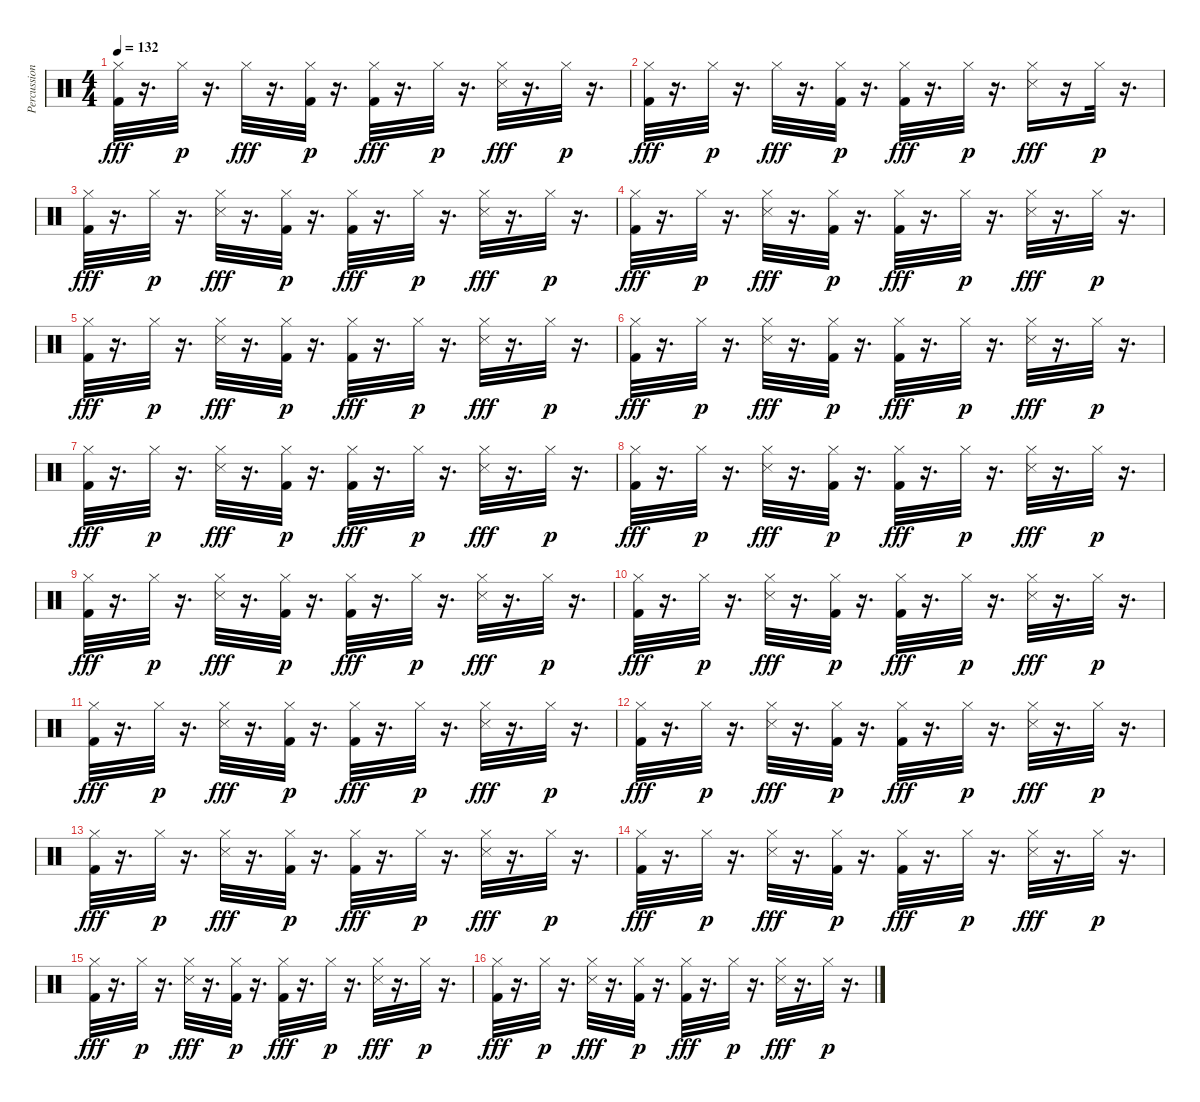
\track ("Percussion" "Percussion") {instrument percussion}
\staff {score}
\articulation defaults
\ts (4 4)
\tempo 132
\clef neutral
\ks c
("Kick (hit) 2" "Hi-Hat (closed)").32{dy fff} r.16{d} "Hi-Hat (closed)".32{dy p} r.16{d} "Hi-Hat (closed)".32{dy fff} r.16{d} ("Kick (hit) 2" "Hi-Hat (closed)").32{dy p} r.16{d} ("Kick (hit) 2" "Hi-Hat (closed)").32{dy fff} r.16{d} "Hi-Hat (closed)".32{dy p} r.16{d} ("Snare (side stick) 3" "Hi-Hat (closed)").32{dy fff} r.16{d} "Hi-Hat (closed)".32{dy p} r.16{d} |
("Kick (hit) 2" "Hi-Hat (closed)").32{dy fff} r.16{d} "Hi-Hat (closed)".32{dy p} r.16{d} "Hi-Hat (closed)".32{dy fff} r.16{d} ("Kick (hit) 2" "Hi-Hat (closed)").32{dy p} r.16{d} ("Kick (hit) 2" "Hi-Hat (closed)").32{dy fff} r.16{d} "Hi-Hat (closed)".32{dy p} r.16{d} ("Snare (side stick) 3" "Hi-Hat (closed)").16{dy fff} r.16 "Hi-Hat (closed)".32{dy p} r.16{d} |
("Kick (hit) 2" "Hi-Hat (closed)").32{dy fff} r.16{d} "Hi-Hat (closed)".32{dy p} r.16{d} ("Hi-Hat (closed)" "Snare (side stick) 3").32{dy fff} r.16{d} ("Kick (hit) 2" "Hi-Hat (closed)").32{dy p} r.16{d} ("Kick (hit) 2" "Hi-Hat (closed)").32{dy fff} r.16{d} "Hi-Hat (closed)".32{dy p} r.16{d} ("Snare (side stick) 3" "Hi-Hat (closed)").32{dy fff} r.16{d} "Hi-Hat (closed)".32{dy p} r.16{d} |
("Kick (hit) 2" "Hi-Hat (closed)").32{dy fff} r.16{d} "Hi-Hat (closed)".32{dy p} r.16{d} ("Hi-Hat (closed)" "Snare (side stick) 3").32{dy fff} r.16{d} ("Kick (hit) 2" "Hi-Hat (closed)").32{dy p} r.16{d} ("Kick (hit) 2" "Hi-Hat (closed)").32{dy fff} r.16{d} "Hi-Hat (closed)".32{dy p} r.16{d} ("Snare (side stick) 3" "Hi-Hat (closed)").32{dy fff} r.16{d} "Hi-Hat (closed)".32{dy p} r.16{d} |
("Kick (hit) 2" "Hi-Hat (closed)").32{dy fff} r.16{d} "Hi-Hat (closed)".32{dy p} r.16{d} ("Snare (side stick) 3" "Hi-Hat (closed)").32{dy fff} r.16{d} ("Kick (hit) 2" "Hi-Hat (closed)").32{dy p} r.16{d} ("Kick (hit) 2" "Hi-Hat (closed)").32{dy fff} r.16{d} "Hi-Hat (closed)".32{dy p} r.16{d} ("Snare (side stick) 3" "Hi-Hat (closed)").32{dy fff} r.16{d} "Hi-Hat (closed)".32{dy p} r.16{d} |
("Kick (hit) 2" "Hi-Hat (closed)").32{dy fff} r.16{d} "Hi-Hat (closed)".32{dy p} r.16{d} ("Snare (side stick) 3" "Hi-Hat (closed)").32{dy fff} r.16{d} ("Kick (hit) 2" "Hi-Hat (closed)").32{dy p} r.16{d} ("Kick (hit) 2" "Hi-Hat (closed)").32{dy fff} r.16{d} "Hi-Hat (closed)".32{dy p} r.16{d} ("Hi-Hat (closed)" "Snare (side stick) 3").32{dy fff} r.16{d} "Hi-Hat (closed)".32{dy p} r.16{d} |
("Kick (hit) 2" "Hi-Hat (closed)").32{dy fff} r.16{d} "Hi-Hat (closed)".32{dy p} r.16{d} ("Snare (side stick) 3" "Hi-Hat (closed)").32{dy fff} r.16{d} ("Kick (hit) 2" "Hi-Hat (closed)").32{dy p} r.16{d} ("Kick (hit) 2" "Hi-Hat (closed)").32{dy fff} r.16{d} "Hi-Hat (closed)".32{dy p} r.16{d} ("Hi-Hat (closed)" "Snare (side stick) 3").32{dy fff} r.16{d} "Hi-Hat (closed)".32{dy p} r.16{d} |
("Kick (hit) 2" "Hi-Hat (closed)").32{dy fff} r.16{d} "Hi-Hat (closed)".32{dy p} r.16{d} ("Snare (side stick) 3" "Hi-Hat (closed)").32{dy fff} r.16{d} ("Kick (hit) 2" "Hi-Hat (closed)").32{dy p} r.16{d} ("Kick (hit) 2" "Hi-Hat (closed)").32{dy fff} r.16{d} "Hi-Hat (closed)".32{dy p} r.16{d} ("Hi-Hat (closed)" "Snare (side stick) 3").32{dy fff} r.16{d} "Hi-Hat (closed)".32{dy p} r.16{d} |
("Kick (hit) 2" "Hi-Hat (closed)").32{dy fff} r.16{d} "Hi-Hat (closed)".32{dy p} r.16{d} ("Snare (side stick) 3" "Hi-Hat (closed)").32{dy fff} r.16{d} ("Kick (hit) 2" "Hi-Hat (closed)").32{dy p} r.16{d} ("Kick (hit) 2" "Hi-Hat (closed)").32{dy fff} r.16{d} "Hi-Hat (closed)".32{dy p} r.16{d} ("Snare (side stick) 3" "Hi-Hat (closed)").32{dy fff} r.16{d} "Hi-Hat (closed)".32{dy p} r.16{d} |
("Kick (hit) 2" "Hi-Hat (closed)").32{dy fff} r.16{d} "Hi-Hat (closed)".32{dy p} r.16{d} ("Snare (side stick) 3" "Hi-Hat (closed)").32{dy fff} r.16{d} ("Kick (hit) 2" "Hi-Hat (closed)").32{dy p} r.16{d} ("Kick (hit) 2" "Hi-Hat (closed)").32{dy fff} r.16{d} "Hi-Hat (closed)".32{dy p} r.16{d} ("Hi-Hat (closed)" "Snare (side stick) 3").32{dy fff} r.16{d} "Hi-Hat (closed)".32{dy p} r.16{d} |
("Kick (hit) 2" "Hi-Hat (closed)").32{dy fff} r.16{d} "Hi-Hat (closed)".32{dy p} r.16{d} ("Hi-Hat (closed)" "Snare (side stick) 3").32{dy fff} r.16{d} ("Kick (hit) 2" "Hi-Hat (closed)").32{dy p} r.16{d} ("Kick (hit) 2" "Hi-Hat (closed)").32{dy fff} r.16{d} "Hi-Hat (closed)".32{dy p} r.16{d} ("Snare (side stick) 3" "Hi-Hat (closed)").32{dy fff} r.16{d} "Hi-Hat (closed)".32{dy p} r.16{d} |
("Kick (hit) 2" "Hi-Hat (closed)").32{dy fff} r.16{d} "Hi-Hat (closed)".32{dy p} r.16{d} ("Snare (side stick) 3" "Hi-Hat (closed)").32{dy fff} r.16{d} ("Kick (hit) 2" "Hi-Hat (closed)").32{dy p} r.16{d} ("Kick (hit) 2" "Hi-Hat (closed)").32{dy fff} r.16{d} "Hi-Hat (closed)".32{dy p} r.16{d} ("Hi-Hat (closed)" "Snare (side stick) 3").32{dy fff} r.16{d} "Hi-Hat (closed)".32{dy p} r.16{d} |
("Kick (hit) 2" "Hi-Hat (closed)").32{dy fff} r.16{d} "Hi-Hat (closed)".32{dy p} r.16{d} ("Hi-Hat (closed)" "Snare (side stick) 3").32{dy fff} r.16{d} ("Kick (hit) 2" "Hi-Hat (closed)").32{dy p} r.16{d} ("Kick (hit) 2" "Hi-Hat (closed)").32{dy fff} r.16{d} "Hi-Hat (closed)".32{dy p} r.16{d} ("Snare (side stick) 3" "Hi-Hat (closed)").32{dy fff} r.16{d} "Hi-Hat (closed)".32{dy p} r.16{d} |
("Kick (hit) 2" "Hi-Hat (closed)").32{dy fff} r.16{d} "Hi-Hat (closed)".32{dy p} r.16{d} ("Snare (side stick) 3" "Hi-Hat (closed)").32{dy fff} r.16{d} ("Kick (hit) 2" "Hi-Hat (closed)").32{dy p} r.16{d} ("Kick (hit) 2" "Hi-Hat (closed)").32{dy fff} r.16{d} "Hi-Hat (closed)".32{dy p} r.16{d} ("Hi-Hat (closed)" "Snare (side stick) 3").32{dy fff} r.16{d} "Hi-Hat (closed)".32{dy p} r.16{d} |
("Kick (hit) 2" "Hi-Hat (closed)").32{dy fff} r.16{d} "Hi-Hat (closed)".32{dy p} r.16{d} ("Hi-Hat (closed)" "Snare (side stick) 3").32{dy fff} r.16{d} ("Kick (hit) 2" "Hi-Hat (closed)").32{dy p} r.16{d} ("Kick (hit) 2" "Hi-Hat (closed)").32{dy fff} r.16{d} "Hi-Hat (closed)".32{dy p} r.16{d} ("Snare (side stick) 3" "Hi-Hat (closed)").32{dy fff} r.16{d} "Hi-Hat (closed)".32{dy p} r.16{d} |
("Kick (hit) 2" "Hi-Hat (closed)").32{dy fff} r.16{d} "Hi-Hat (closed)".32{dy p} r.16{d} ("Hi-Hat (closed)" "Snare (side stick) 3").32{dy fff} r.16{d} ("Kick (hit) 2" "Hi-Hat (closed)").32{dy p} r.16{d} ("Kick (hit) 2" "Hi-Hat (closed)").32{dy fff} r.16{d} "Hi-Hat (closed)".32{dy p} r.16{d} ("Snare (side stick) 3" "Hi-Hat (closed)").32{dy fff} r.16{d} "Hi-Hat (closed)".32{dy p} r.16{d}
